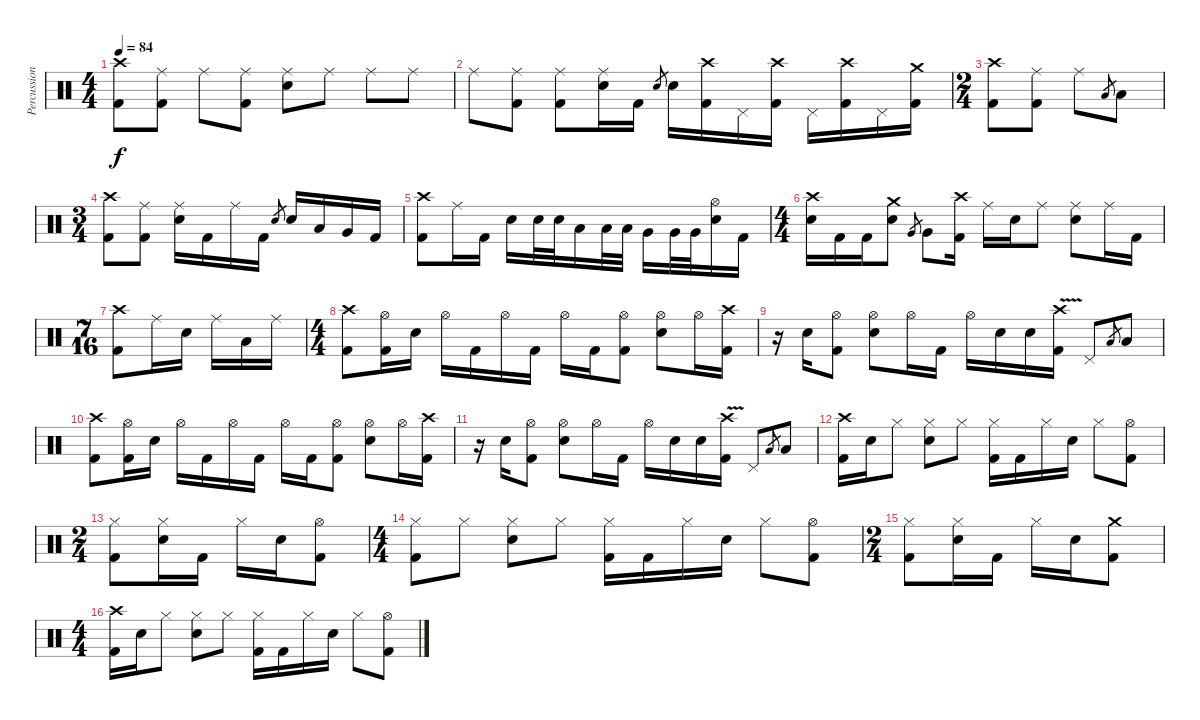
\track ("Percussion" "Percussion") {instrument percussion}
\staff {score}
\articulation defaults
\ts (4 4)
\tempo 84
\clef neutral
\ks c
("Crash high (hit)" "Kick (hit) 2").8{dy f} ("Ride (middle)" "Kick (hit) 2").8 "Ride (middle)".8 ("Ride (middle)" "Kick (hit) 2").8 ("Ride (middle)" "Electric Snare (hit)").8 "Ride (middle)".8 "Ride (middle)".8 "Ride (middle)".8 |
"Ride (middle)".8 ("Ride (middle)" "Kick (hit) 2").8 ("Ride (middle)" "Kick (hit) 2").8 ("Ride (middle)" "Electric Snare (hit)").16 "Kick (hit) 2".16 "Electric Snare (hit)".8{gr} "Electric Snare (hit)".16 ("Crash high (hit)" "Kick (hit) 2").16 "Pedal Hi-Hat (hit)".16 ("Crash high (hit)" "Kick (hit) 2").16 "Pedal Hi-Hat (hit)".16 ("Crash high (hit)" "Kick (hit) 2").16 "Pedal Hi-Hat (hit)".16 ("Crash medium (hit)" "Kick (hit) 2").16 |
\ts (2 4)
("Crash high (hit)" "Kick (hit) 2").8 ("Ride (middle)" "Kick (hit) 2").8 "Ride (middle)".8 "Low Floor Tom (hit)".8{gr} "Low Floor Tom (hit)".8 |
\ts (3 4)
("Crash high (hit)" "Kick (hit) 2").8 ("Ride (middle)" "Kick (hit) 2").8 ("Ride (middle)" "Electric Snare (hit)").16 "Kick (hit) 2".16 "Ride (middle)".16 "Kick (hit) 2".16 "Electric Snare (hit)".8{gr} "Electric Snare (hit)".16 "Low Tom (hit)".16 "Very Low Tom (hit)".16 "Kick (hit) 2".16 |
("Crash high (hit)" "Kick (hit) 2").8 "Ride (middle)".16 "Kick (hit) 2".16 "Electric Snare (hit)".16 "Electric Snare (hit)".32 "Electric Snare (hit)".32 "Low Tom (hit)".16 "Low Tom (hit)".32 "Low Tom (hit)".32 "Very Low Tom (hit)".16 "Very Low Tom (hit)".32 "Very Low Tom (hit)".32 ("Hi-Hat (open)" "Electric Snare (hit)").16 "Kick (hit) 2".16 |
\ts (4 4)
("Crash high (hit)" "Electric Snare (hit)").16 "Kick (hit) 2".16 "Kick (hit) 2".16 ("Crash medium (hit)" "Electric Snare (hit)").8 "Very Low Tom (hit)".8{gr} "Very Low Tom (hit)".8 ("Crash high (hit)" "Kick (hit) 2").16 "Ride (middle)".16 "Electric Snare (hit)".16 "Ride (middle)".8 ("Ride (middle)" "Electric Snare (hit)").8 "Ride (middle)".16 "Kick (hit) 2".16 |
\ts (7 16)
("Crash high (hit)" "Kick (hit) 2").8 "Ride (middle)".16 "Electric Snare (hit)".16 "Ride (middle)".16 "Low Tom (hit)".16 "Ride (middle)".16 |
\ts (4 4)
("Crash high (hit)" "Kick (hit) 2").8 ("Hi-Hat (open)" "Kick (hit) 2").16 "Electric Snare (hit)".16 "Hi-Hat (open)".16 "Kick (hit) 2".16 "Hi-Hat (open)".16 "Kick (hit) 2".16 "Hi-Hat (open)".16 "Kick (hit) 2".16 ("Hi-Hat (open)" "Kick (hit) 2").8 ("Hi-Hat (open)" "Electric Snare (hit)").8 "Hi-Hat (open)".16 ("Crash high (hit)" "Kick (hit) 2").16 |
r.16 "Electric Snare (hit)".16 ("Hi-Hat (open)" "Kick (hit) 2").8 ("Hi-Hat (open)" "Electric Snare (hit)").8 "Hi-Hat (open)".16 "Kick (hit) 2".16 "Hi-Hat (open)".16 "Electric Snare (hit)".16 "Electric Snare (hit)".16 ("Crash high (hit)"{v} "Kick (hit) 2").16 "Pedal Hi-Hat (hit)".8 "Low Floor Tom (hit)".8{gr} "Low Floor Tom (hit)".8 |
("Crash high (hit)" "Kick (hit) 2").8 ("Hi-Hat (open)" "Kick (hit) 2").16 "Electric Snare (hit)".16 "Hi-Hat (open)".16 "Kick (hit) 2".16 "Hi-Hat (open)".16 "Kick (hit) 2".16 "Hi-Hat (open)".16 "Kick (hit) 2".16 ("Hi-Hat (open)" "Kick (hit) 2").8 ("Hi-Hat (open)" "Electric Snare (hit)").8 "Hi-Hat (open)".16 ("Crash high (hit)" "Kick (hit) 2").16 |
r.16 "Electric Snare (hit)".16 ("Hi-Hat (open)" "Kick (hit) 2").8 ("Hi-Hat (open)" "Electric Snare (hit)").8 "Hi-Hat (open)".16 "Kick (hit) 2".16 "Hi-Hat (open)".16 "Electric Snare (hit)".16 "Electric Snare (hit)".16 ("Crash high (hit)"{v} "Kick (hit) 2").16 "Pedal Hi-Hat (hit)".8 "Low Floor Tom (hit)".8{gr} "Low Floor Tom (hit)".8 |
("Crash high (hit)" "Kick (hit) 2").16 "Electric Snare (hit)".16 "Hi-Hat (closed)".8 ("Hi-Hat (closed)" "Electric Snare (hit)").8 "Hi-Hat (closed)".8 ("Hi-Hat (closed)" "Kick (hit) 2").16 "Kick (hit) 2".16 "Hi-Hat (closed)".16 "Electric Snare (hit)".16 "Hi-Hat (closed)".8 ("Hi-Hat (open)" "Kick (hit) 2").8 |
\ts (2 4)
("Hi-Hat (closed)" "Kick (hit) 2").8 ("Hi-Hat (closed)" "Electric Snare (hit)").16 "Kick (hit) 2".16 "Hi-Hat (closed)".16 "Electric Snare (hit)".16 ("Hi-Hat (open)" "Kick (hit) 2").8 |
\ts (4 4)
("Hi-Hat (closed)" "Kick (hit) 2").8 "Hi-Hat (closed)".8 ("Hi-Hat (closed)" "Electric Snare (hit)").8 "Hi-Hat (closed)".8 ("Hi-Hat (closed)" "Kick (hit) 2").16 "Kick (hit) 2".16 "Hi-Hat (closed)".16 "Electric Snare (hit)".16 "Hi-Hat (closed)".8 ("Hi-Hat (open)" "Kick (hit) 2").8 |
\ts (2 4)
("Hi-Hat (closed)" "Kick (hit) 2").8 ("Hi-Hat (closed)" "Electric Snare (hit)").16 "Kick (hit) 2".16 "Hi-Hat (closed)".16 "Electric Snare (hit)".16 ("Crash medium (hit)" "Kick (hit) 2").8 |
\ts (4 4)
("Crash high (hit)" "Kick (hit) 2").16 "Electric Snare (hit)".16 "Hi-Hat (closed)".8 ("Hi-Hat (closed)" "Electric Snare (hit)").8 "Hi-Hat (closed)".8 ("Hi-Hat (closed)" "Kick (hit) 2").16 "Kick (hit) 2".16 "Hi-Hat (closed)".16 "Electric Snare (hit)".16 "Hi-Hat (closed)".8 ("Hi-Hat (open)" "Kick (hit) 2").8
